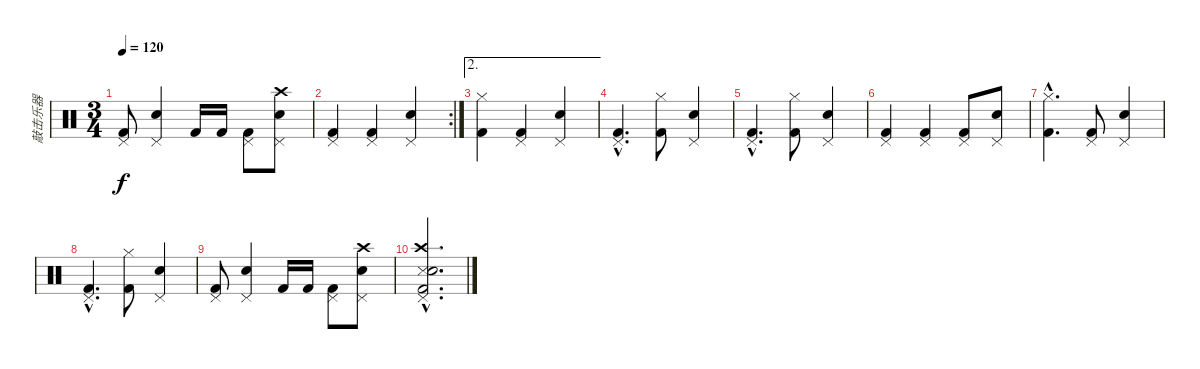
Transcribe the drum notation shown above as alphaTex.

\track ("敲击乐器" "敲击乐器") {instrument percussion}
\staff {score}
\articulation defaults
\ts (3 4)
\tempo 120
\clef neutral
\ks c
("Kick (hit) 2" "Pedal Hi-Hat (hit)").8{dy f} ("Pedal Hi-Hat (hit)" "Snare (hit) 2").4 "Kick (hit) 2".16 "Kick (hit) 2".16 ("Pedal Hi-Hat (hit)" "Kick (hit) 2").8 ("Snare (hit) 2" "Crash high (hit)" "Pedal Hi-Hat (hit)").8 |
\rc 2
("Kick (hit) 2" "Pedal Hi-Hat (hit)").4 ("Kick (hit) 2" "Pedal Hi-Hat (hit)").4 ("Snare (hit) 2" "Pedal Hi-Hat (hit)").4 |
\ae 2
("Kick (hit) 2" "Hi-Hat (closed)").4 ("Kick (hit) 2" "Pedal Hi-Hat (hit)").4 ("Snare (hit) 2" "Pedal Hi-Hat (hit)").4 |
("Kick (hit) 2"{hac} "Pedal Hi-Hat (hit)"{hac}).4{d} ("Kick (hit) 2" "Hi-Hat (closed)").8 ("Pedal Hi-Hat (hit)" "Snare (hit) 2").4 |
("Kick (hit) 2"{hac} "Pedal Hi-Hat (hit)"{hac}).4{d} ("Kick (hit) 2" "Hi-Hat (closed)").8 ("Pedal Hi-Hat (hit)" "Snare (hit) 2").4 |
("Kick (hit) 2" "Pedal Hi-Hat (hit)").4 ("Kick (hit) 2" "Pedal Hi-Hat (hit)").4 ("Kick (hit) 2" "Pedal Hi-Hat (hit)").8 ("Snare (hit) 2" "Pedal Hi-Hat (hit)").8 |
("Kick (hit) 2"{hac} "Hi-Hat (closed)"{hac}).4{d} ("Kick (hit) 2" "Pedal Hi-Hat (hit)").8 ("Pedal Hi-Hat (hit)" "Snare (hit) 2").4 |
("Kick (hit) 2"{hac} "Pedal Hi-Hat (hit)"{hac}).4{d} ("Kick (hit) 2" "Hi-Hat (closed)").8 ("Pedal Hi-Hat (hit)" "Snare (hit) 2").4 |
("Kick (hit) 2" "Pedal Hi-Hat (hit)").8 ("Pedal Hi-Hat (hit)" "Snare (hit) 2").4 "Kick (hit) 2".16 "Kick (hit) 2".16 ("Kick (hit) 2" "Pedal Hi-Hat (hit)").8 ("Snare (hit) 2" "Crash high (hit)" "Pedal Hi-Hat (hit)").8 |
("Kick (hit) 2"{hac} "Snare (side stick) 3"{hac} "Snare (hit) 2"{hac} "Pedal Hi-Hat (hit)"{hac} "Crash high (hit)"{hac}).2{d}
